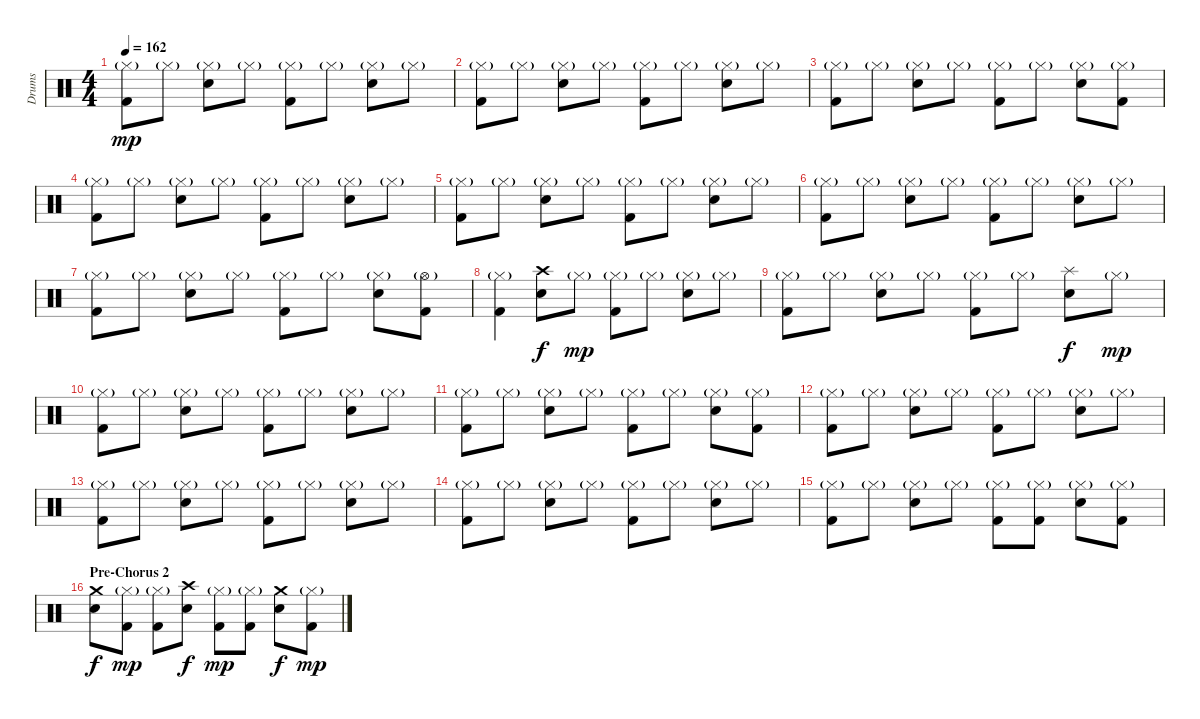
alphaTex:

\track ("Drums" "Drums") {instrument percussion}
\staff {score}
\articulation defaults
\ts (4 4)
\tempo 162
\clef neutral
\ks c
("Hi-Hat (closed)"{g} "Kick (hit) 2").8{dy mp} "Hi-Hat (closed)"{g}.8 ("Hi-Hat (closed)"{g} "Snare (hit) 2").8 "Hi-Hat (closed)"{g}.8 ("Hi-Hat (closed)"{g} "Kick (hit) 2").8 "Hi-Hat (closed)"{g}.8 ("Hi-Hat (closed)"{g} "Snare (hit) 2").8 "Hi-Hat (closed)"{g}.8 |
("Hi-Hat (closed)"{g} "Kick (hit) 2").8 "Hi-Hat (closed)"{g}.8 ("Hi-Hat (closed)"{g} "Snare (hit) 2").8 "Hi-Hat (closed)"{g}.8 ("Hi-Hat (closed)"{g} "Kick (hit) 2").8 "Hi-Hat (closed)"{g}.8 ("Hi-Hat (closed)"{g} "Snare (hit) 2").8 "Hi-Hat (closed)"{g}.8 |
("Hi-Hat (closed)"{g} "Kick (hit) 2").8 "Hi-Hat (closed)"{g}.8 ("Hi-Hat (closed)"{g} "Snare (hit) 2").8 "Hi-Hat (closed)"{g}.8 ("Hi-Hat (closed)"{g} "Kick (hit) 2").8 "Hi-Hat (closed)"{g}.8 ("Hi-Hat (closed)"{g} "Snare (hit) 2").8 ("Hi-Hat (closed)"{g} "Kick (hit) 2").8 |
("Hi-Hat (closed)"{g} "Kick (hit) 2").8 "Hi-Hat (closed)"{g}.8 ("Hi-Hat (closed)"{g} "Snare (hit) 2").8 "Hi-Hat (closed)"{g}.8 ("Hi-Hat (closed)"{g} "Kick (hit) 2").8 "Hi-Hat (closed)"{g}.8 ("Hi-Hat (closed)"{g} "Snare (hit) 2").8 "Hi-Hat (closed)"{g}.8 |
("Hi-Hat (closed)"{g} "Kick (hit) 2").8 "Hi-Hat (closed)"{g}.8 ("Hi-Hat (closed)"{g} "Snare (hit) 2").8 "Hi-Hat (closed)"{g}.8 ("Hi-Hat (closed)"{g} "Kick (hit) 2").8 "Hi-Hat (closed)"{g}.8 ("Hi-Hat (closed)"{g} "Snare (hit) 2").8 "Hi-Hat (closed)"{g}.8 |
("Hi-Hat (closed)"{g} "Kick (hit) 2").8 "Hi-Hat (closed)"{g}.8 ("Hi-Hat (closed)"{g} "Snare (hit) 2").8 "Hi-Hat (closed)"{g}.8 ("Hi-Hat (closed)"{g} "Kick (hit) 2").8 "Hi-Hat (closed)"{g}.8 ("Hi-Hat (closed)"{g} "Snare (hit) 2").8 "Hi-Hat (closed)"{g}.8 |
("Hi-Hat (closed)"{g} "Kick (hit) 2").8 "Hi-Hat (closed)"{g}.8 ("Hi-Hat (closed)"{g} "Snare (hit) 2").8 "Hi-Hat (closed)"{g}.8 ("Hi-Hat (closed)"{g} "Kick (hit) 2").8 "Hi-Hat (closed)"{g}.8 ("Hi-Hat (closed)"{g} "Snare (hit) 2").8 ("Hi-Hat (open)"{g} "Kick (hit) 2").8 |
("Hi-Hat (closed)"{g} "Kick (hit) 2").4 ("Crash high (hit)" "Snare (hit) 2").8{dy f} "Hi-Hat (closed)"{g}.8{dy mp} ("Hi-Hat (closed)"{g} "Kick (hit) 2").8 "Hi-Hat (closed)"{g}.8 ("Hi-Hat (closed)"{g} "Snare (hit) 2").8 "Hi-Hat (closed)"{g}.8 |
("Hi-Hat (closed)"{g} "Kick (hit) 2").8 "Hi-Hat (closed)"{g}.8 ("Hi-Hat (closed)"{g} "Snare (hit) 2").8 "Hi-Hat (closed)"{g}.8 ("Hi-Hat (closed)"{g} "Kick (hit) 2").8 "Hi-Hat (closed)"{g}.8 ("Splash (hit)" "Snare (hit) 2").8{dy f} "Hi-Hat (closed)"{g}.8{dy mp} |
("Hi-Hat (closed)"{g} "Kick (hit) 2").8 "Hi-Hat (closed)"{g}.8 ("Hi-Hat (closed)"{g} "Snare (hit) 2").8 "Hi-Hat (closed)"{g}.8 ("Hi-Hat (closed)"{g} "Kick (hit) 2").8 "Hi-Hat (closed)"{g}.8 ("Hi-Hat (closed)"{g} "Snare (hit) 2").8 "Hi-Hat (closed)"{g}.8 |
("Hi-Hat (closed)"{g} "Kick (hit) 2").8 "Hi-Hat (closed)"{g}.8 ("Hi-Hat (closed)"{g} "Snare (hit) 2").8 "Hi-Hat (closed)"{g}.8 ("Hi-Hat (closed)"{g} "Kick (hit) 2").8 "Hi-Hat (closed)"{g}.8 ("Hi-Hat (closed)"{g} "Snare (hit) 2").8 ("Hi-Hat (closed)"{g} "Kick (hit) 2").8 |
("Hi-Hat (closed)"{g} "Kick (hit) 2").8 "Hi-Hat (closed)"{g}.8 ("Hi-Hat (closed)"{g} "Snare (hit) 2").8 "Hi-Hat (closed)"{g}.8 ("Hi-Hat (closed)"{g} "Kick (hit) 2").8 "Hi-Hat (closed)"{g}.8 ("Hi-Hat (closed)"{g} "Snare (hit) 2").8 "Hi-Hat (closed)"{g}.8 |
("Hi-Hat (closed)"{g} "Kick (hit) 2").8 "Hi-Hat (closed)"{g}.8 ("Hi-Hat (closed)"{g} "Snare (hit) 2").8 "Hi-Hat (closed)"{g}.8 ("Hi-Hat (closed)"{g} "Kick (hit) 2").8 "Hi-Hat (closed)"{g}.8 ("Hi-Hat (closed)"{g} "Snare (hit) 2").8 "Hi-Hat (closed)"{g}.8 |
("Hi-Hat (closed)"{g} "Kick (hit) 2").8 "Hi-Hat (closed)"{g}.8 ("Hi-Hat (closed)"{g} "Snare (hit) 2").8 "Hi-Hat (closed)"{g}.8 ("Hi-Hat (closed)"{g} "Kick (hit) 2").8 "Hi-Hat (closed)"{g}.8 ("Hi-Hat (closed)"{g} "Snare (hit) 2").8 "Hi-Hat (closed)"{g}.8 |
("Hi-Hat (closed)"{g} "Kick (hit) 2").8 "Hi-Hat (closed)"{g}.8 ("Hi-Hat (closed)"{g} "Snare (hit) 2").8 "Hi-Hat (closed)"{g}.8 ("Hi-Hat (closed)"{g} "Kick (hit) 2").8 ("Hi-Hat (closed)"{g} "Kick (hit) 2").8 ("Hi-Hat (closed)"{g} "Snare (hit) 2").8 ("Hi-Hat (closed)"{g} "Kick (hit) 2").8 |
\section ("" "Pre-Chorus 2")
("Crash medium (hit)" "Snare (hit) 2").8{dy f} ("Hi-Hat (closed)"{g} "Kick (hit) 2").8{dy mp} ("Hi-Hat (closed)"{g} "Kick (hit) 2").8 ("Crash high (hit)" "Snare (hit) 2").8{dy f} ("Hi-Hat (closed)"{g} "Kick (hit) 2").8{dy mp} ("Hi-Hat (closed)"{g} "Kick (hit) 2").8 ("Crash medium (hit)" "Snare (hit) 2").8{dy f} ("Hi-Hat (closed)"{g} "Kick (hit) 2").8{dy mp}
